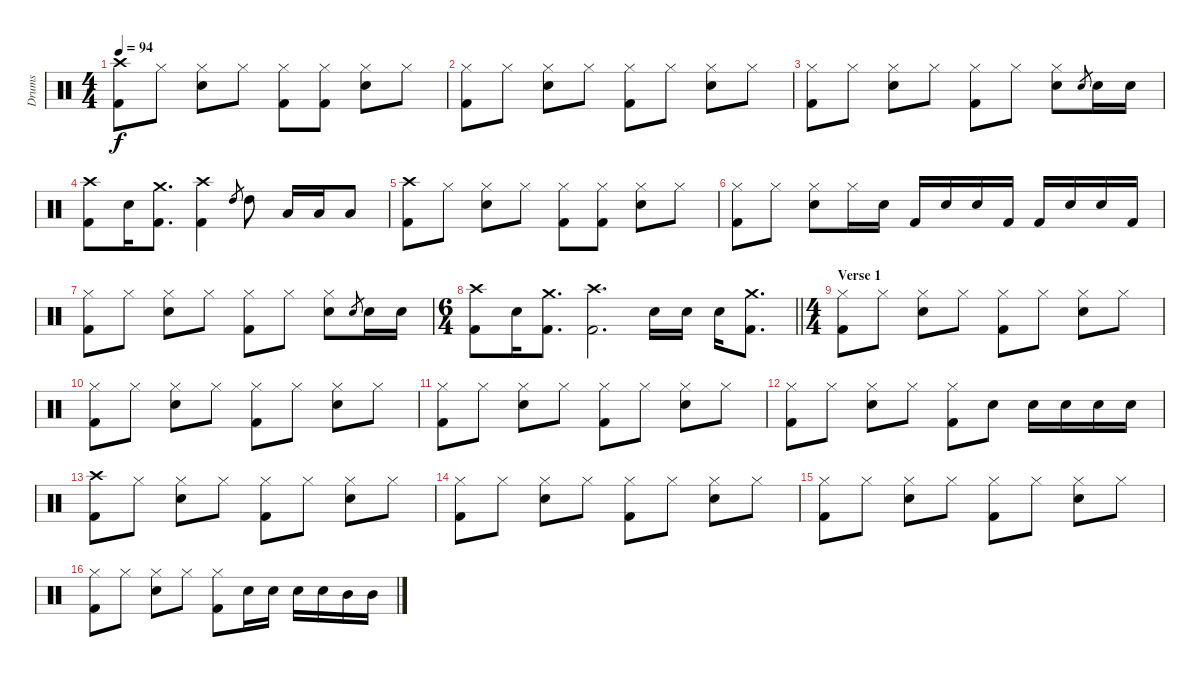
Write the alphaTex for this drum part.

\track ("Drums" "Drums") {instrument percussion}
\staff {score}
\articulation defaults
\ts (4 4)
\tempo 94
\clef neutral
\ks c
("Crash high (hit)" "Kick (hit) 2").8{dy f} "Hi-Hat (closed)".8 ("Hi-Hat (closed)" "Snare (hit) 2").8 "Hi-Hat (closed)".8 ("Hi-Hat (closed)" "Kick (hit) 2").8 ("Hi-Hat (closed)" "Kick (hit) 2").8 ("Hi-Hat (closed)" "Snare (hit) 2").8 "Hi-Hat (closed)".8 |
("Hi-Hat (closed)" "Kick (hit) 2").8 "Hi-Hat (closed)".8 ("Hi-Hat (closed)" "Snare (hit) 2").8 "Hi-Hat (closed)".8 ("Hi-Hat (closed)" "Kick (hit) 2").8 "Hi-Hat (closed)".8 ("Hi-Hat (closed)" "Snare (hit) 2").8 "Hi-Hat (closed)".8 |
("Hi-Hat (closed)" "Kick (hit) 2").8 "Hi-Hat (closed)".8 ("Hi-Hat (closed)" "Snare (hit) 2").8 "Hi-Hat (closed)".8 ("Hi-Hat (closed)" "Kick (hit) 2").8 "Hi-Hat (closed)".8 ("Hi-Hat (closed)" "Snare (hit) 2").8 "Snare (hit) 2".8{gr} "Snare (hit) 2".16 "Snare (hit) 2".16 |
("Crash high (hit)" "Kick (hit) 2").8 "Snare (hit) 2".16 ("Crash medium (hit)" "Kick (hit) 2").8{d} ("Crash high (hit)" "Kick (hit) 2").4 "High Tom (hit)".8{gr} "High Tom (hit)".8 "Low Tom (hit)".16 "Low Tom (hit)".16 "Low Tom (hit)".8 |
("Crash high (hit)" "Kick (hit) 2").8 "Hi-Hat (closed)".8 ("Hi-Hat (closed)" "Snare (hit) 2").8 "Hi-Hat (closed)".8 ("Hi-Hat (closed)" "Kick (hit) 2").8 ("Hi-Hat (closed)" "Kick (hit) 2").8 ("Hi-Hat (closed)" "Snare (hit) 2").8 "Hi-Hat (closed)".8 |
("Hi-Hat (closed)" "Kick (hit) 2").8 "Hi-Hat (closed)".8 ("Hi-Hat (closed)" "Snare (hit) 2").8 "Hi-Hat (closed)".16 "Snare (hit) 2".16 "Kick (hit) 2".16 "Snare (hit) 2".16 "Snare (hit) 2".16 "Kick (hit) 2".16 "Kick (hit) 2".16 "Snare (hit) 2".16 "Snare (hit) 2".16 "Kick (hit) 2".16 |
("Hi-Hat (closed)" "Kick (hit) 2").8 "Hi-Hat (closed)".8 ("Hi-Hat (closed)" "Snare (hit) 2").8 "Hi-Hat (closed)".8 ("Hi-Hat (closed)" "Kick (hit) 2").8 "Hi-Hat (closed)".8 ("Hi-Hat (closed)" "Snare (hit) 2").8 "Snare (hit) 2".8{gr} "Snare (hit) 2".16 "Snare (hit) 2".16 |
\ts (6 4)
\barLineRight lightlight
("Crash high (hit)" "Kick (hit) 2").8 "Snare (hit) 2".16 ("Crash medium (hit)" "Kick (hit) 2").8{d} ("Crash high (hit)" "Kick (hit) 2").2{d} "Snare (hit) 2".16 "Snare (hit) 2".16 "Snare (hit) 2".16 ("Crash medium (hit)" "Kick (hit) 2").8{d} |
\ts (4 4)
\section ("" "Verse 1")
("Hi-Hat (closed)" "Kick (hit) 2").8 "Hi-Hat (closed)".8 ("Hi-Hat (closed)" "Snare (hit) 2").8 "Hi-Hat (closed)".8 ("Hi-Hat (closed)" "Kick (hit) 2").8 "Hi-Hat (closed)".8 ("Hi-Hat (closed)" "Snare (hit) 2").8 "Hi-Hat (closed)".8 |
("Hi-Hat (closed)" "Kick (hit) 2").8 "Hi-Hat (closed)".8 ("Hi-Hat (closed)" "Snare (hit) 2").8 "Hi-Hat (closed)".8 ("Hi-Hat (closed)" "Kick (hit) 2").8 "Hi-Hat (closed)".8 ("Hi-Hat (closed)" "Snare (hit) 2").8 "Hi-Hat (closed)".8 |
("Hi-Hat (closed)" "Kick (hit) 2").8 "Hi-Hat (closed)".8 ("Hi-Hat (closed)" "Snare (hit) 2").8 "Hi-Hat (closed)".8 ("Hi-Hat (closed)" "Kick (hit) 2").8 "Hi-Hat (closed)".8 ("Hi-Hat (closed)" "Snare (hit) 2").8 "Hi-Hat (closed)".8 |
("Hi-Hat (closed)" "Kick (hit) 2").8 "Hi-Hat (closed)".8 ("Hi-Hat (closed)" "Snare (hit) 2").8 "Hi-Hat (closed)".8 ("Hi-Hat (closed)" "Kick (hit) 2").8 "Snare (hit) 2".8 "Snare (hit) 2".16 "Snare (hit) 2".16 "Snare (hit) 2".16 "Snare (hit) 2".16 |
("Crash high (hit)" "Kick (hit) 2").8 "Hi-Hat (closed)".8 ("Hi-Hat (closed)" "Snare (hit) 2").8 "Hi-Hat (closed)".8 ("Hi-Hat (closed)" "Kick (hit) 2").8 "Hi-Hat (closed)".8 ("Hi-Hat (closed)" "Snare (hit) 2").8 "Hi-Hat (closed)".8 |
("Hi-Hat (closed)" "Kick (hit) 2").8 "Hi-Hat (closed)".8 ("Hi-Hat (closed)" "Snare (hit) 2").8 "Hi-Hat (closed)".8 ("Hi-Hat (closed)" "Kick (hit) 2").8 "Hi-Hat (closed)".8 ("Hi-Hat (closed)" "Snare (hit) 2").8 "Hi-Hat (closed)".8 |
("Hi-Hat (closed)" "Kick (hit) 2").8 "Hi-Hat (closed)".8 ("Hi-Hat (closed)" "Snare (hit) 2").8 "Hi-Hat (closed)".8 ("Hi-Hat (closed)" "Kick (hit) 2").8 "Hi-Hat (closed)".8 ("Hi-Hat (closed)" "Snare (hit) 2").8 "Hi-Hat (closed)".8 |
("Hi-Hat (closed)" "Kick (hit) 2").8 "Hi-Hat (closed)".8 ("Hi-Hat (closed)" "Snare (hit) 2").8 "Hi-Hat (closed)".8 ("Hi-Hat (closed)" "Kick (hit) 2").8 "Snare (hit) 2".16 "Snare (hit) 2".16 "Snare (hit) 2".16 "Snare (hit) 2".16 "Mid Tom (hit)".16 "Mid Tom (hit)".16
